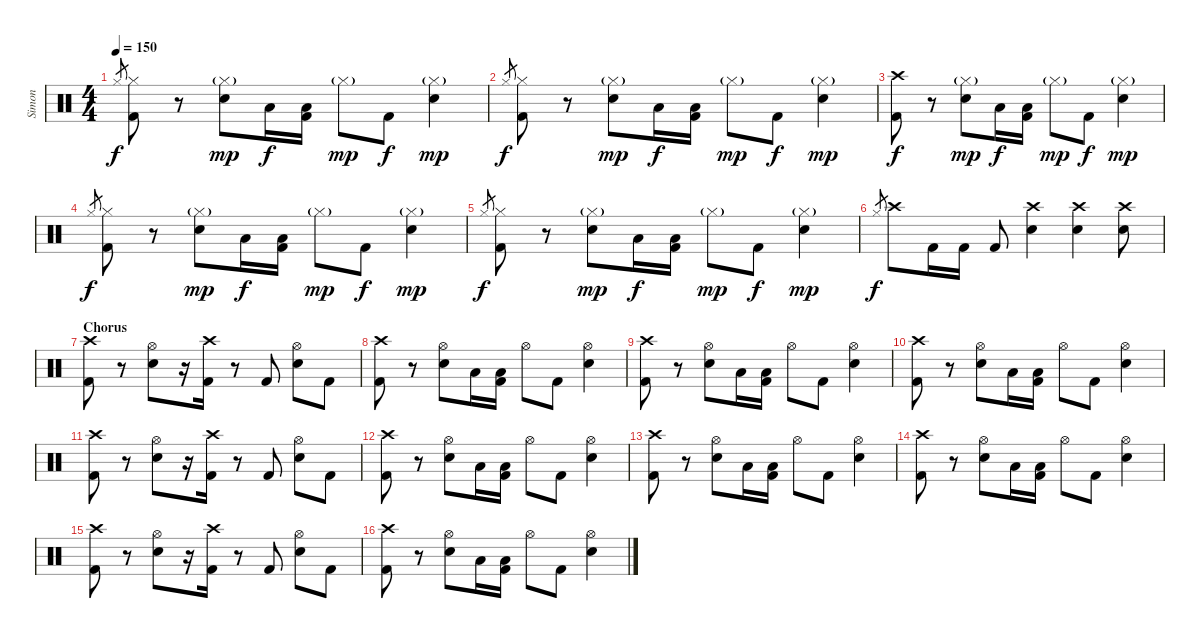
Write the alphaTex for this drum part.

\track ("Simon" "Simon") {instrument percussion}
\staff {score}
\articulation defaults
\ts (4 4)
\tempo 150
\clef neutral
\ks c "Hi-Hat (closed)".8{gr dy f}
("Hi-Hat (closed)" "Kick (hit) 2").8 r.8 ("Hi-Hat (closed)"{g} "Electric Snare (hit)").8{dy mp} "Low Tom (hit)".16{dy f} ("Kick (hit) 2" "Low Tom (hit)").16 "Hi-Hat (closed)"{g}.8{dy mp} "Kick (hit) 2".8{dy f} ("Hi-Hat (closed)"{g} "Electric Snare (hit)").4{dy mp} |
"Hi-Hat (closed)".8{gr dy f} ("Hi-Hat (closed)" "Kick (hit) 2").8 r.8 ("Hi-Hat (closed)"{g} "Electric Snare (hit)").8{dy mp} "Low Tom (hit)".16{dy f} ("Kick (hit) 2" "Low Tom (hit)").16 "Hi-Hat (closed)"{g}.8{dy mp} "Kick (hit) 2".8{dy f} ("Hi-Hat (closed)"{g} "Electric Snare (hit)").4{dy mp} |
("Crash high (hit)" "Kick (hit) 2").8{dy f} r.8 ("Hi-Hat (closed)"{g} "Electric Snare (hit)").8{dy mp} "Low Tom (hit)".16{dy f} ("Kick (hit) 2" "Low Tom (hit)").16 "Hi-Hat (closed)"{g}.8{dy mp} "Kick (hit) 2".8{dy f} ("Hi-Hat (closed)"{g} "Electric Snare (hit)").4{dy mp} |
"Hi-Hat (closed)".8{gr dy f} ("Hi-Hat (closed)" "Kick (hit) 2").8 r.8 ("Hi-Hat (closed)"{g} "Electric Snare (hit)").8{dy mp} "Low Tom (hit)".16{dy f} ("Kick (hit) 2" "Low Tom (hit)").16 "Hi-Hat (closed)"{g}.8{dy mp} "Kick (hit) 2".8{dy f} ("Hi-Hat (closed)"{g} "Electric Snare (hit)").4{dy mp} |
"Hi-Hat (closed)".8{gr dy f} ("Hi-Hat (closed)" "Kick (hit) 2").8 r.8 ("Hi-Hat (closed)"{g} "Electric Snare (hit)").8{dy mp} "Low Tom (hit)".16{dy f} ("Kick (hit) 2" "Low Tom (hit)").16 "Hi-Hat (closed)"{g}.8{dy mp} "Kick (hit) 2".8{dy f} ("Hi-Hat (closed)"{g} "Electric Snare (hit)").4{dy mp} |
"Hi-Hat (closed)".8{gr dy f} "Crash high (hit)".8 "Kick (hit) 2".16 "Kick (hit) 2".16 "Kick (hit) 2".8 ("Crash high (hit)" "Electric Snare (hit)").4 ("Crash high (hit)" "Electric Snare (hit)").4 ("Crash high (hit)" "Electric Snare (hit)").8 |
\section ("" "Chorus")
("Crash high (hit)" "Kick (hit) 2").8 r.8 ("Hi-Hat (open)" "Electric Snare (hit)").8 r.16 ("Crash high (hit)" "Kick (hit) 2").16 r.8 "Kick (hit) 2".8 ("Hi-Hat (open)" "Electric Snare (hit)").8 "Kick (hit) 2".8 |
("Crash high (hit)" "Kick (hit) 2").8 r.8 ("Hi-Hat (open)" "Electric Snare (hit)").8 "Low Tom (hit)".16 ("Kick (hit) 2" "Low Tom (hit)").16 "Hi-Hat (open)".8 "Kick (hit) 2".8 ("Hi-Hat (open)" "Electric Snare (hit)").4 |
("Crash high (hit)" "Kick (hit) 2").8 r.8 ("Hi-Hat (open)" "Electric Snare (hit)").8 "Low Tom (hit)".16 ("Kick (hit) 2" "Low Tom (hit)").16 "Hi-Hat (open)".8 "Kick (hit) 2".8 ("Hi-Hat (open)" "Electric Snare (hit)").4 |
("Crash high (hit)" "Kick (hit) 2").8 r.8 ("Hi-Hat (open)" "Electric Snare (hit)").8 "Low Tom (hit)".16 ("Kick (hit) 2" "Low Tom (hit)").16 "Hi-Hat (open)".8 "Kick (hit) 2".8 ("Hi-Hat (open)" "Electric Snare (hit)").4 |
("Crash high (hit)" "Kick (hit) 2").8 r.8 ("Hi-Hat (open)" "Electric Snare (hit)").8 r.16 ("Crash high (hit)" "Kick (hit) 2").16 r.8 "Kick (hit) 2".8 ("Hi-Hat (open)" "Electric Snare (hit)").8 "Kick (hit) 2".8 |
("Crash high (hit)" "Kick (hit) 2").8 r.8 ("Hi-Hat (open)" "Electric Snare (hit)").8 "Low Tom (hit)".16 ("Kick (hit) 2" "Low Tom (hit)").16 "Hi-Hat (open)".8 "Kick (hit) 2".8 ("Hi-Hat (open)" "Electric Snare (hit)").4 |
("Crash high (hit)" "Kick (hit) 2").8 r.8 ("Hi-Hat (open)" "Electric Snare (hit)").8 "Low Tom (hit)".16 ("Kick (hit) 2" "Low Tom (hit)").16 "Hi-Hat (open)".8 "Kick (hit) 2".8 ("Hi-Hat (open)" "Electric Snare (hit)").4 |
("Crash high (hit)" "Kick (hit) 2").8 r.8 ("Hi-Hat (open)" "Electric Snare (hit)").8 "Low Tom (hit)".16 ("Kick (hit) 2" "Low Tom (hit)").16 "Hi-Hat (open)".8 "Kick (hit) 2".8 ("Hi-Hat (open)" "Electric Snare (hit)").4 |
("Crash high (hit)" "Kick (hit) 2").8 r.8 ("Hi-Hat (open)" "Electric Snare (hit)").8 r.16 ("Crash high (hit)" "Kick (hit) 2").16 r.8 "Kick (hit) 2".8 ("Hi-Hat (open)" "Electric Snare (hit)").8 "Kick (hit) 2".8 |
("Crash high (hit)" "Kick (hit) 2").8 r.8 ("Hi-Hat (open)" "Electric Snare (hit)").8 "Low Tom (hit)".16 ("Kick (hit) 2" "Low Tom (hit)").16 "Hi-Hat (open)".8 "Kick (hit) 2".8 ("Hi-Hat (open)" "Electric Snare (hit)").4
